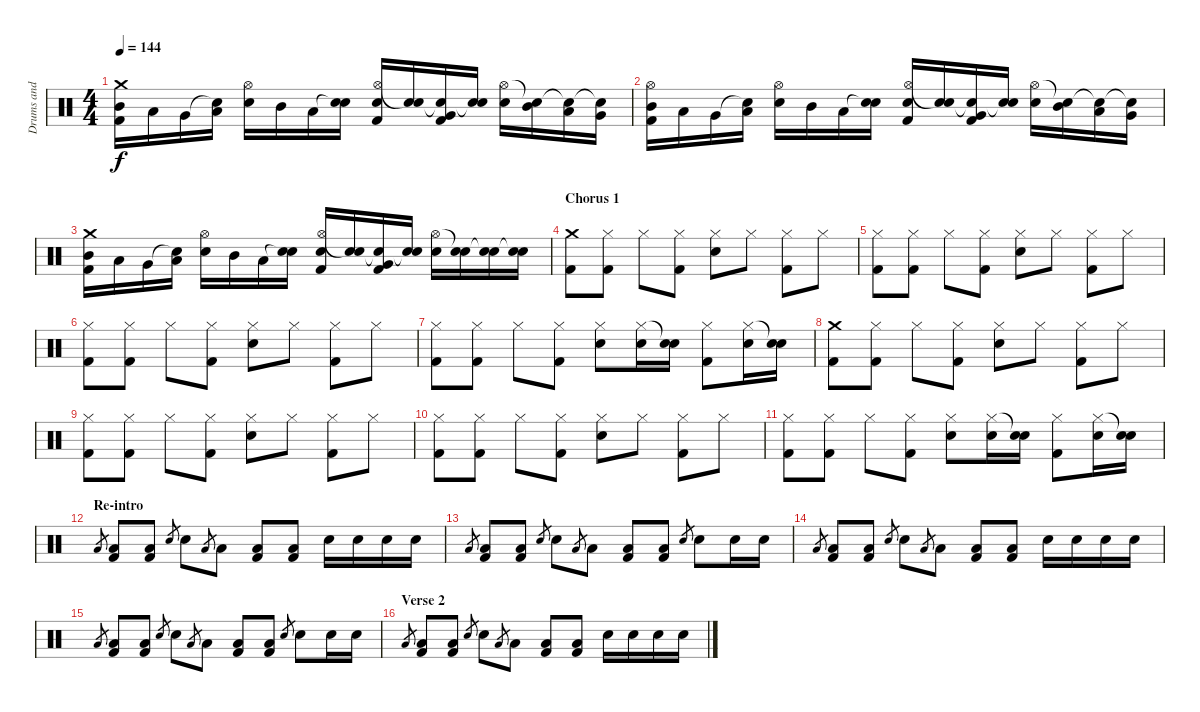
\track ("Drums and Percussion" "Drums and ") {instrument percussion}
\staff {score}
\articulation defaults
\ts (4 4)
\tempo 144
\clef neutral
\ks c
("Crash medium (hit)" "Mid Tom (hit)" "Kick (hit) 2").16{dy f} "Low Tom (hit)".16 "Very Low Tom (hit)".16 ("Snare (hit)"{t} "Low Floor Tom (hit)").16 ("Hi-Hat (open)" "Electric Snare (hit)").16 "Mid Tom (hit)".16 "Low Tom (hit)".16 ("Snare (hit)"{t} "Electric Snare (hit)").16 ("Hi-Hat (open)" "Electric Snare (hit)" "Kick (hit) 2").16 ("Snare (hit)"{t} "Electric Snare (hit)").16 ("Snare (hit)"{t} "Very Low Tom (hit)" "Kick (hit) 2").16 ("Snare (hit)"{t} "Electric Snare (hit)").16 ("Hi-Hat (open)" "Electric Snare (hit)").16 ("Snare (hit)"{t} "Mid Tom (hit)").16 ("Snare (hit)"{t} "Low Tom (hit)").16 ("Snare (hit)"{t} "Very Low Tom (hit)").16 |
("Hi-Hat (open)" "Mid Tom (hit)" "Kick (hit) 2").16 "Low Tom (hit)".16 "Very Low Tom (hit)".16 ("Snare (hit)"{t} "Low Floor Tom (hit)").16 ("Hi-Hat (open)" "Electric Snare (hit)").16 "Mid Tom (hit)".16 "Low Tom (hit)".16 ("Snare (hit)"{t} "Electric Snare (hit)").16 ("Hi-Hat (open)" "Electric Snare (hit)" "Kick (hit) 2").16 ("Snare (hit)"{t} "Electric Snare (hit)").16 ("Snare (hit)"{t} "Very Low Tom (hit)" "Kick (hit) 2").16 ("Snare (hit)"{t} "Electric Snare (hit)").16 ("Hi-Hat (open)" "Electric Snare (hit)").16 ("Snare (hit)"{t} "Mid Tom (hit)").16 ("Snare (hit)"{t} "Low Tom (hit)").16 ("Snare (hit)"{t} "Very Low Tom (hit)").16 |
("Crash medium (hit)" "Mid Tom (hit)" "Kick (hit) 2").16 "Low Tom (hit)".16 "Very Low Tom (hit)".16 ("Snare (hit)"{t} "Low Floor Tom (hit)").16 ("Hi-Hat (open)" "Electric Snare (hit)").16 "Mid Tom (hit)".16 "Low Tom (hit)".16 ("Snare (hit)"{t} "Electric Snare (hit)").16 ("Hi-Hat (open)" "Electric Snare (hit)" "Kick (hit) 2").16 ("Snare (hit)"{t} "Electric Snare (hit)").16 ("Snare (hit)"{t} "Very Low Tom (hit)" "Kick (hit) 2").16 ("Snare (hit)"{t} "Electric Snare (hit)").16 ("Hi-Hat (open)" "Electric Snare (hit)").16 ("Snare (hit)"{t} "Electric Snare (hit)").16 ("Snare (hit)"{t} "Electric Snare (hit)").16 ("Snare (hit)"{t} "Electric Snare (hit)").16 |
\section ("" "Chorus 1")
("Crash medium (hit)" "Kick (hit) 2").8 ("Hi-Hat (closed)" "Kick (hit) 2").8 "Hi-Hat (closed)".8 ("Hi-Hat (closed)" "Kick (hit) 2").8 ("Hi-Hat (closed)" "Electric Snare (hit)").8 "Hi-Hat (closed)".8 ("Hi-Hat (closed)" "Kick (hit) 2").8 "Hi-Hat (closed)".8 |
("Hi-Hat (closed)" "Kick (hit) 2").8 ("Hi-Hat (closed)" "Kick (hit) 2").8 "Hi-Hat (closed)".8 ("Hi-Hat (closed)" "Kick (hit) 2").8 ("Hi-Hat (closed)" "Electric Snare (hit)").8 "Hi-Hat (closed)".8 ("Hi-Hat (closed)" "Kick (hit) 2").8 "Hi-Hat (closed)".8 |
("Hi-Hat (closed)" "Kick (hit) 2").8 ("Hi-Hat (closed)" "Kick (hit) 2").8 "Hi-Hat (closed)".8 ("Hi-Hat (closed)" "Kick (hit) 2").8 ("Hi-Hat (closed)" "Electric Snare (hit)").8 "Hi-Hat (closed)".8 ("Hi-Hat (closed)" "Kick (hit) 2").8 "Hi-Hat (closed)".8 |
("Hi-Hat (closed)" "Kick (hit) 2").8 ("Hi-Hat (closed)" "Kick (hit) 2").8 "Hi-Hat (closed)".8 ("Hi-Hat (closed)" "Kick (hit) 2").8 ("Hi-Hat (closed)" "Electric Snare (hit)").8 ("Hi-Hat (closed)" "Electric Snare (hit)").16 ("Snare (hit)"{t} "Electric Snare (hit)").16 ("Hi-Hat (closed)" "Kick (hit) 2").8 ("Hi-Hat (closed)" "Electric Snare (hit)").16 ("Snare (hit)"{t} "Electric Snare (hit)").16 |
("Crash medium (hit)" "Kick (hit) 2").8 ("Hi-Hat (closed)" "Kick (hit) 2").8 "Hi-Hat (closed)".8 ("Hi-Hat (closed)" "Kick (hit) 2").8 ("Hi-Hat (closed)" "Electric Snare (hit)").8 "Hi-Hat (closed)".8 ("Hi-Hat (closed)" "Kick (hit) 2").8 "Hi-Hat (closed)".8 |
("Hi-Hat (closed)" "Kick (hit) 2").8 ("Hi-Hat (closed)" "Kick (hit) 2").8 "Hi-Hat (closed)".8 ("Hi-Hat (closed)" "Kick (hit) 2").8 ("Hi-Hat (closed)" "Electric Snare (hit)").8 "Hi-Hat (closed)".8 ("Hi-Hat (closed)" "Kick (hit) 2").8 "Hi-Hat (closed)".8 |
("Hi-Hat (closed)" "Kick (hit) 2").8 ("Hi-Hat (closed)" "Kick (hit) 2").8 "Hi-Hat (closed)".8 ("Hi-Hat (closed)" "Kick (hit) 2").8 ("Hi-Hat (closed)" "Electric Snare (hit)").8 "Hi-Hat (closed)".8 ("Hi-Hat (closed)" "Kick (hit) 2").8 "Hi-Hat (closed)".8 |
("Hi-Hat (closed)" "Kick (hit) 2").8 ("Hi-Hat (closed)" "Kick (hit) 2").8 "Hi-Hat (closed)".8 ("Hi-Hat (closed)" "Kick (hit) 2").8 ("Hi-Hat (closed)" "Electric Snare (hit)").8 ("Hi-Hat (closed)" "Electric Snare (hit)").16 ("Snare (hit)"{t} "Electric Snare (hit)").16 ("Hi-Hat (closed)" "Kick (hit) 2").8 ("Hi-Hat (closed)" "Electric Snare (hit)").16 ("Snare (hit)"{t} "Electric Snare (hit)").16 |
\section ("" "Re-intro")
"Low Floor Tom (hit)".8{gr} ("Low Floor Tom (hit)" "Kick (hit) 2").8 ("Low Floor Tom (hit)" "Kick (hit) 2").8 "Electric Snare (hit)".8{gr} "Electric Snare (hit)".8 "Low Floor Tom (hit)".8{gr} "Low Floor Tom (hit)".8 ("Low Floor Tom (hit)" "Kick (hit) 2").8 ("Low Floor Tom (hit)" "Kick (hit) 2").8 "Electric Snare (hit)".16 "Electric Snare (hit)".16 "Electric Snare (hit)".16 "Electric Snare (hit)".16 |
"Low Floor Tom (hit)".8{gr} ("Low Floor Tom (hit)" "Kick (hit) 2").8 ("Low Floor Tom (hit)" "Kick (hit) 2").8 "Electric Snare (hit)".8{gr} "Electric Snare (hit)".8 "Low Floor Tom (hit)".8{gr} "Low Floor Tom (hit)".8 ("Low Floor Tom (hit)" "Kick (hit) 2").8 ("Low Floor Tom (hit)" "Kick (hit) 2").8 "Electric Snare (hit)".8{gr} "Electric Snare (hit)".8 "Electric Snare (hit)".16 "Electric Snare (hit)".16 |
"Low Floor Tom (hit)".8{gr} ("Low Floor Tom (hit)" "Kick (hit) 2").8 ("Low Floor Tom (hit)" "Kick (hit) 2").8 "Electric Snare (hit)".8{gr} "Electric Snare (hit)".8 "Low Floor Tom (hit)".8{gr} "Low Floor Tom (hit)".8 ("Low Floor Tom (hit)" "Kick (hit) 2").8 ("Low Floor Tom (hit)" "Kick (hit) 2").8 "Electric Snare (hit)".16 "Electric Snare (hit)".16 "Electric Snare (hit)".16 "Electric Snare (hit)".16 |
"Low Floor Tom (hit)".8{gr} ("Low Floor Tom (hit)" "Kick (hit) 2").8 ("Low Floor Tom (hit)" "Kick (hit) 2").8 "Electric Snare (hit)".8{gr} "Electric Snare (hit)".8 "Low Floor Tom (hit)".8{gr} "Low Floor Tom (hit)".8 ("Low Floor Tom (hit)" "Kick (hit) 2").8 ("Low Floor Tom (hit)" "Kick (hit) 2").8 "Electric Snare (hit)".8{gr} "Electric Snare (hit)".8 "Electric Snare (hit)".16 "Electric Snare (hit)".16 |
\section ("" "Verse 2")
"Low Floor Tom (hit)".8{gr} ("Low Floor Tom (hit)" "Kick (hit) 2").8 ("Low Floor Tom (hit)" "Kick (hit) 2").8 "Electric Snare (hit)".8{gr} "Electric Snare (hit)".8 "Low Floor Tom (hit)".8{gr} "Low Floor Tom (hit)".8 ("Low Floor Tom (hit)" "Kick (hit) 2").8 ("Low Floor Tom (hit)" "Kick (hit) 2").8 "Electric Snare (hit)".16 "Electric Snare (hit)".16 "Electric Snare (hit)".16 "Electric Snare (hit)".16
